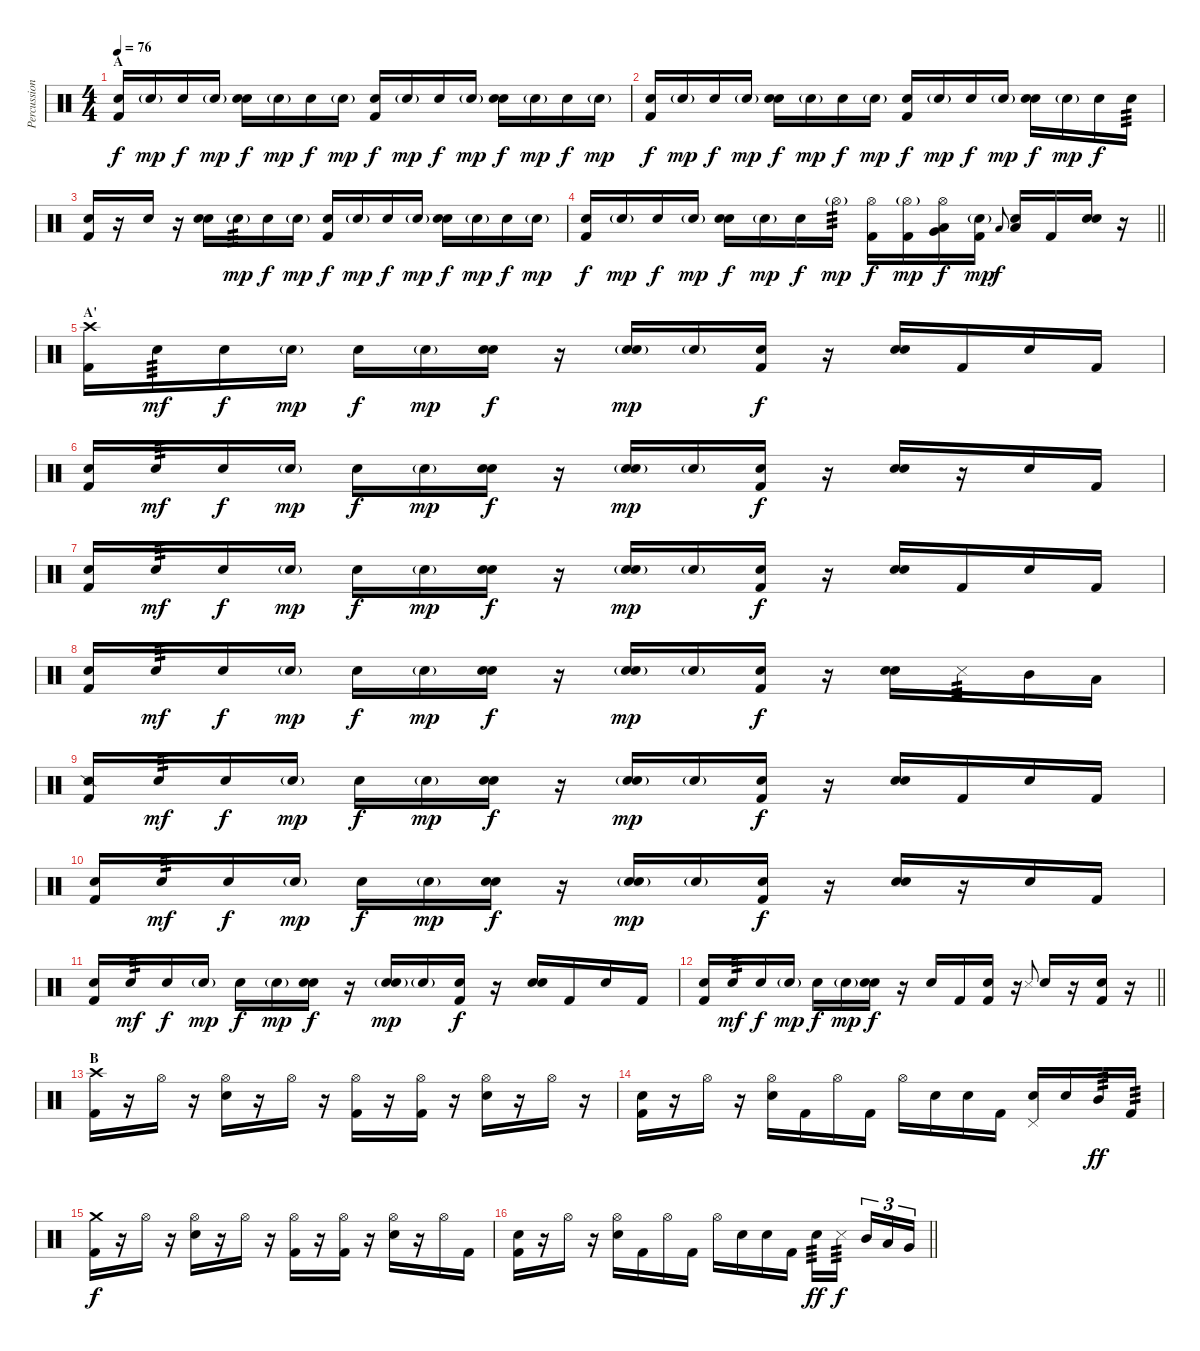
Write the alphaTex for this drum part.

\track ("Percussion" "Percussion") {instrument percussion}
\staff {score}
\articulation defaults
\ts (4 4)
\section ("" "A")
\tempo 76
\clef neutral
\ks c
("Snare (hit)" "Kick (hit) 2").16{dy f} "Snare (hit)"{g}.16{dy mp} "Snare (hit)".16{dy f} "Snare (hit)"{g}.16{dy mp} ("Snare (hit)" "Snare (hit) 2").16{dy f} "Snare (hit)"{g}.16{dy mp} "Snare (hit)".16{dy f} "Snare (hit)"{g}.16{dy mp} ("Snare (hit)" "Kick (hit) 2").16{dy f} "Snare (hit)"{g}.16{dy mp} "Snare (hit)".16{dy f} "Snare (hit)"{g}.16{dy mp} ("Snare (hit)" "Snare (hit) 2").16{dy f} "Snare (hit)"{g}.16{dy mp} "Snare (hit)".16{dy f} "Snare (hit)"{g}.16{dy mp} |
("Snare (hit)" "Kick (hit) 2").16{dy f} "Snare (hit)"{g}.16{dy mp} "Snare (hit)".16{dy f} "Snare (hit)"{g}.16{dy mp} ("Snare (hit)" "Snare (hit) 2").16{dy f} "Snare (hit)"{g}.16{dy mp} "Snare (hit)".16{dy f} "Snare (hit)"{g}.16{dy mp} ("Snare (hit)" "Kick (hit) 2").16{dy f} "Snare (hit)"{g}.16{dy mp} "Snare (hit)".16{dy f} "Snare (hit)"{g}.16{dy mp} ("Snare (hit)" "Snare (hit) 2").16{dy f} "Snare (hit)"{g}.16{dy mp} "Snare (hit)".16{dy f} "Snare (hit)".16{tp 3} |
("Snare (hit)" "Kick (hit) 2").16 r.16 "Snare (hit)".16 r.16 ("Snare (hit)" "Snare (hit) 2").16 "Snare (hit)"{g}.16{tp 3 dy mp} "Snare (hit)".16{dy f} "Snare (hit)"{g}.16{dy mp} ("Snare (hit)" "Kick (hit) 2").16{dy f} "Snare (hit)"{g}.16{dy mp} "Snare (hit)".16{dy f} "Snare (hit)"{g}.16{dy mp} ("Snare (hit)" "Snare (hit) 2").16{dy f} "Snare (hit)"{g}.16{dy mp} "Snare (hit)".16{dy f} "Snare (hit)"{g}.16{dy mp} |
\barLineRight lightlight
("Snare (hit)" "Kick (hit) 2").16{dy f} "Snare (hit)"{g}.16{dy mp} "Snare (hit)".16{dy f} "Snare (hit)"{g}.16{dy mp} ("Snare (hit)" "Snare (hit) 2").16{dy f} "Snare (hit)"{g}.16{dy mp} "Snare (hit)".16{dy f} "Hi-Hat (open)"{g}.16{tp 3 dy mp} ("Hi-Hat (open)" "Kick (hit) 2").16{dy f} ("Hi-Hat (open)"{g} "Kick (hit) 2").16{dy mp} ("Hi-Hat (open)" "Low Tom (hit)" "Very Low Tom (hit)").16{dy f} ("Snare (hit)"{g} "Kick (hit) 2").16{dy mp} "Low Floor Tom (hit)".8{gr onbeat dy f} ("Snare (hit)" "Low Floor Tom (hit)").16 "Kick (hit) 2".16 ("Snare (hit)" "Snare (hit) 2").16 r.16 |
\section ("" "A'")
("Crash high (hit)" "Kick (hit) 2").16 "Snare (hit) 2".16{tp 3 dy mf} "Snare (hit)".16{dy f} "Snare (hit) 2"{g}.16{dy mp} "Snare (hit)".16{dy f} "Snare (hit) 2"{g}.16{dy mp} ("Snare (hit)" "Snare (hit) 2").16{dy f} r.16 ("Snare (hit)" "Snare (hit) 2"{g}).16{dy mp} "Snare (hit) 2"{g}.16 ("Snare (hit)" "Kick (hit) 2").16{dy f} r.16 ("Snare (hit)" "Snare (hit) 2").16 "Kick (hit) 2".16 "Snare (hit)".16 "Kick (hit) 2".16 |
("Snare (hit)" "Kick (hit) 2").16 "Snare (hit) 2".16{tp 3 dy mf} "Snare (hit)".16{dy f} "Snare (hit) 2"{g}.16{dy mp} "Snare (hit)".16{dy f} "Snare (hit) 2"{g}.16{dy mp} ("Snare (hit)" "Snare (hit) 2").16{dy f} r.16 ("Snare (hit)" "Snare (hit) 2"{g}).16{dy mp} "Snare (hit) 2"{g}.16 ("Snare (hit)" "Kick (hit) 2").16{dy f} r.16 ("Snare (hit)" "Snare (hit) 2").16 r.16 "Snare (hit)".16 "Kick (hit) 2".16 |
("Snare (hit)" "Kick (hit) 2").16 "Snare (hit) 2".16{tp 3 dy mf} "Snare (hit)".16{dy f} "Snare (hit) 2"{g}.16{dy mp} "Snare (hit)".16{dy f} "Snare (hit) 2"{g}.16{dy mp} ("Snare (hit)" "Snare (hit) 2").16{dy f} r.16 ("Snare (hit)" "Snare (hit) 2"{g}).16{dy mp} "Snare (hit) 2"{g}.16 ("Snare (hit)" "Kick (hit) 2").16{dy f} r.16 ("Snare (hit)" "Snare (hit) 2").16 "Kick (hit) 2".16 "Snare (hit)".16 "Kick (hit) 2".16 |
("Snare (hit)" "Kick (hit) 2").16 "Snare (hit) 2".16{tp 3 dy mf} "Snare (hit)".16{dy f} "Snare (hit) 2"{g}.16{dy mp} "Snare (hit)".16{dy f} "Snare (hit) 2"{g}.16{dy mp} ("Snare (hit)" "Snare (hit) 2").16{dy f} r.16 ("Snare (hit)" "Snare (hit) 2"{g}).16{dy mp} "Snare (hit) 2"{g}.16 ("Snare (hit)" "Kick (hit) 2").16{dy f} r.16 ("Snare (hit)" "Snare (hit) 2").16 "Metronome (hit)".16{tp 3} "Mid Tom (hit)".16 "Low Tom (hit)".16 |
("Snare (side stick) 2" "Kick (hit) 2").16 "Snare (hit) 2".16{tp 3 dy mf} "Snare (hit)".16{dy f} "Snare (hit) 2"{g}.16{dy mp} "Snare (hit)".16{dy f} "Snare (hit) 2"{g}.16{dy mp} ("Snare (hit)" "Snare (hit) 2").16{dy f} r.16 ("Snare (hit)" "Snare (hit) 2"{g}).16{dy mp} "Snare (hit) 2"{g}.16 ("Snare (hit)" "Kick (hit) 2").16{dy f} r.16 ("Snare (hit)" "Snare (hit) 2").16 "Kick (hit) 2".16 "Snare (hit)".16 "Kick (hit) 2".16 |
("Snare (hit)" "Kick (hit) 2").16 "Snare (hit) 2".16{tp 3 dy mf} "Snare (hit)".16{dy f} "Snare (hit) 2"{g}.16{dy mp} "Snare (hit)".16{dy f} "Snare (hit) 2"{g}.16{dy mp} ("Snare (hit)" "Snare (hit) 2").16{dy f} r.16 ("Snare (hit)" "Snare (hit) 2"{g}).16{dy mp} "Snare (hit) 2"{g}.16 ("Snare (hit)" "Kick (hit) 2").16{dy f} r.16 ("Snare (hit)" "Snare (hit) 2").16 r.16 "Snare (hit)".16 "Kick (hit) 2".16 |
("Snare (hit)" "Kick (hit) 2").16 "Snare (hit) 2".16{tp 3 dy mf} "Snare (hit)".16{dy f} "Snare (hit) 2"{g}.16{dy mp} "Snare (hit)".16{dy f} "Snare (hit) 2"{g}.16{dy mp} ("Snare (hit)" "Snare (hit) 2").16{dy f} r.16 ("Snare (hit)" "Snare (hit) 2"{g}).16{dy mp} "Snare (hit) 2"{g}.16 ("Snare (hit)" "Kick (hit) 2").16{dy f} r.16 ("Snare (hit)" "Snare (hit) 2").16 "Kick (hit) 2".16 "Snare (hit)".16 "Kick (hit) 2".16 |
\barLineRight lightlight
("Snare (hit)" "Kick (hit) 2").16 "Snare (hit) 2".16{tp 3 dy mf} "Snare (hit)".16{dy f} "Snare (hit) 2"{g}.16{dy mp} "Snare (hit)".16{dy f} "Snare (hit) 2"{g}.16{dy mp} ("Snare (hit)" "Snare (hit) 2").16{dy f} r.16 "Snare (hit)".16 "Kick (hit) 2".16 ("Snare (hit)" "Kick (hit) 2").16 r.16 "Metronome (hit)".8{gr onbeat} "Snare (hit) 2".16 r.16 ("Snare (hit)" "Kick (hit) 2").16 r.16 |
\section ("" "B")
("Crash high (hit)" "Kick (hit) 2").16 r.16 "Hi-Hat (open)".16 r.16 ("Hi-Hat (open)" "Snare (hit) 2").16 r.16 "Hi-Hat (open)".16 r.16 ("Hi-Hat (open)" "Kick (hit) 2").16 r.16 ("Hi-Hat (open)" "Kick (hit) 2").16 r.16 ("Hi-Hat (open)" "Snare (hit) 2").16 r.16 "Hi-Hat (open)".16 r.16 |
("Snare (hit)" "Kick (hit) 2").16 r.16 "Hi-Hat (open)".16 r.16 ("Hi-Hat (open)" "Snare (hit) 2").16 "Kick (hit) 2".16 "Hi-Hat (open)".16 "Kick (hit) 2".16 "Hi-Hat (open)".16 "Snare (hit) 2".16 "Snare (hit)".16 "Kick (hit) 2".16 ("Pedal Hi-Hat (hit)" "Snare (hit) 2").16 "Snare (hit)".16 "Mid Tom (hit)".16{tp 3 dy ff} "Kick (hit) 2".16{tp 3} |
("Crash medium (hit)" "Kick (hit) 2").16{dy f} r.16 "Hi-Hat (open)".16 r.16 ("Hi-Hat (open)" "Snare (hit) 2").16 r.16 "Hi-Hat (open)".16 r.16 ("Hi-Hat (open)" "Kick (hit) 2").16 r.16 ("Hi-Hat (open)" "Kick (hit) 2").16 r.16 ("Hi-Hat (open)" "Snare (hit) 2").16 r.16 "Hi-Hat (open)".16 "Kick (hit) 2".16 |
\barLineRight lightlight
("Snare (hit)" "Kick (hit) 2").16 r.16 "Hi-Hat (open)".16 r.16 ("Hi-Hat (open)" "Snare (hit) 2").16 "Kick (hit) 2".16 "Hi-Hat (open)".16 "Kick (hit) 2".16 "Hi-Hat (open)".16 "Snare (hit) 2".16 "Snare (hit)".16 "Kick (hit) 2".16 "Snare (hit) 2".16{tp 3 dy ff} "Metronome (hit)".16{tp 3 dy f beam splitsecondary} "Mid Tom (hit)".16{tu (3 2)} "Low Tom (hit)".16{tu (3 2)} "Very Low Tom (hit)".16{tu (3 2)}
